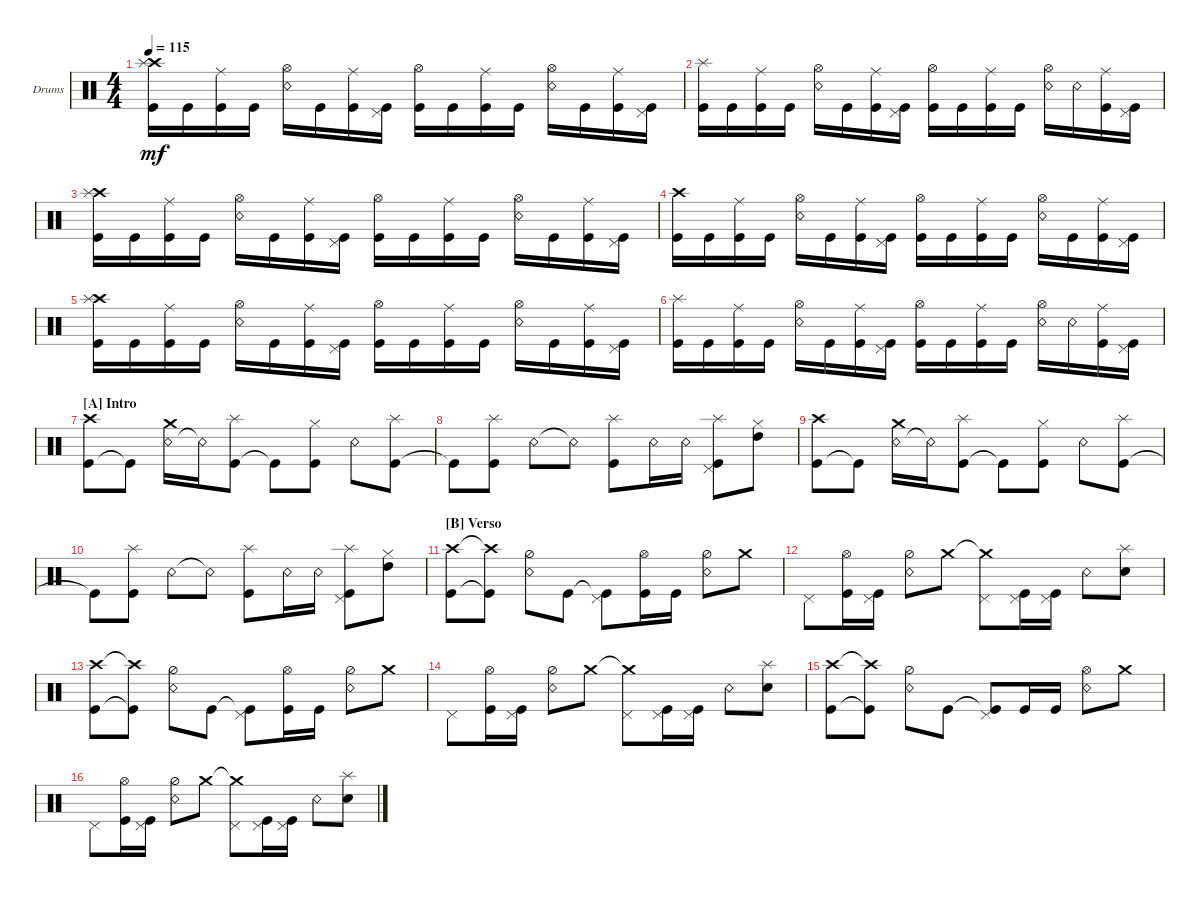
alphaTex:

\defaultSystemsLayout 4
\bracketExtendMode groupsimilarinstruments
\firstSystemTrackNameOrientation horizontal
\otherSystemsTrackNameOrientation horizontal
\track ("Drum" "Drums") {multiBarRest instrument percussion}
\staff {score}
\articulation defaults
\ts (4 4)
\tempo 115
\clef neutral
\ks c
("Kick (hit)" "Crash high (hit)" "Splash (hit)").16{dy mf} "Kick (hit)".16 ("Kick (hit)" "Ride (middle)").16 "Kick (hit)".16 ("Snare (rim shot)" "Hi-Hat (open)").16 "Kick (hit)".16 ("Kick (hit)" "Ride (middle)").16 ("Kick (hit)" "Pedal Hi-Hat (hit)").16 ("Kick (hit)" "Hi-Hat (open)").16 "Kick (hit)".16 ("Kick (hit)" "Ride (middle)").16 "Kick (hit)".16 ("Snare (rim shot)" "Hi-Hat (open)").16 "Kick (hit)".16 ("Kick (hit)" "Ride (middle)").16 ("Kick (hit)" "Pedal Hi-Hat (hit)").16 |
("Kick (hit)" "Splash (hit)").16 "Kick (hit)".16 ("Kick (hit)" "Ride (middle)").16 "Kick (hit)".16 ("Snare (rim shot)" "Hi-Hat (open)").16 "Kick (hit)".16 ("Kick (hit)" "Ride (middle)").16 ("Kick (hit)" "Pedal Hi-Hat (hit)").16 ("Kick (hit)" "Hi-Hat (open)").16 "Kick (hit)".16 ("Kick (hit)" "Ride (middle)").16 "Kick (hit)".16 ("Snare (rim shot)" "Hi-Hat (open)").16 "Snare (rim shot)".16 ("Kick (hit)" "Ride (middle)").16 ("Kick (hit)" "Pedal Hi-Hat (hit)").16 |
("Kick (hit)" "Crash high (hit)" "Splash (hit)").16 "Kick (hit)".16 ("Kick (hit)" "Ride (middle)").16 "Kick (hit)".16 ("Snare (rim shot)" "Hi-Hat (open)").16 "Kick (hit)".16 ("Kick (hit)" "Ride (middle)").16 ("Kick (hit)" "Pedal Hi-Hat (hit)").16 ("Kick (hit)" "Hi-Hat (open)").16 "Kick (hit)".16 ("Kick (hit)" "Ride (middle)").16 "Kick (hit)".16 ("Snare (rim shot)" "Hi-Hat (open)").16 "Kick (hit)".16 ("Kick (hit)" "Ride (middle)").16 ("Kick (hit)" "Pedal Hi-Hat (hit)").16 |
("Kick (hit)" "Crash high (hit)").16 "Kick (hit)".16 ("Kick (hit)" "Ride (middle)").16 "Kick (hit)".16 ("Snare (rim shot)" "Hi-Hat (open)").16 "Kick (hit)".16 ("Kick (hit)" "Ride (middle)").16 ("Kick (hit)" "Pedal Hi-Hat (hit)").16 ("Kick (hit)" "Hi-Hat (open)").16 "Kick (hit)".16 ("Kick (hit)" "Ride (middle)").16 "Kick (hit)".16 ("Snare (rim shot)" "Hi-Hat (open)").16 "Kick (hit)".16 ("Kick (hit)" "Ride (middle)").16 ("Kick (hit)" "Pedal Hi-Hat (hit)").16 |
("Kick (hit)" "Crash high (hit)" "Splash (hit)").16 "Kick (hit)".16 ("Kick (hit)" "Ride (middle)").16 "Kick (hit)".16 ("Snare (rim shot)" "Hi-Hat (open)").16 "Kick (hit)".16 ("Kick (hit)" "Ride (middle)").16 ("Kick (hit)" "Pedal Hi-Hat (hit)").16 ("Kick (hit)" "Hi-Hat (open)").16 "Kick (hit)".16 ("Kick (hit)" "Ride (middle)").16 "Kick (hit)".16 ("Snare (rim shot)" "Hi-Hat (open)").16 "Kick (hit)".16 ("Kick (hit)" "Ride (middle)").16 ("Kick (hit)" "Pedal Hi-Hat (hit)").16 |
("Kick (hit)" "Splash (hit)").16 "Kick (hit)".16 ("Kick (hit)" "Ride (middle)").16 "Kick (hit)".16 ("Snare (rim shot)" "Hi-Hat (open)").16 "Kick (hit)".16 ("Kick (hit)" "Ride (middle)").16 ("Kick (hit)" "Pedal Hi-Hat (hit)").16 ("Kick (hit)" "Hi-Hat (open)").16 "Kick (hit)".16 ("Kick (hit)" "Ride (middle)").16 "Kick (hit)".16 ("Snare (rim shot)" "Hi-Hat (open)").16 "Snare (rim shot)".16 ("Kick (hit)" "Ride (middle)").16 ("Kick (hit)" "Pedal Hi-Hat (hit)").16 |
\section ("A" "Intro")
("Kick (hit)" "Crash high (hit)").8 "Kick (hit)"{t}.8 ("Snare (rim shot)" "Crash medium (hit)").16 "Snare (rim shot)"{t}.16 ("Kick (hit)" "Splash (hit)").8 "Kick (hit)"{t}.8 ("Kick (hit)" "Hi-Hat (closed)").8 "Snare (rim shot)".8 ("Kick (hit)" "Splash (hit)").8 |
"Kick (hit)"{t}.8 ("Kick (hit)" "Splash (hit)").8 "Snare (rim shot)".8 "Snare (rim shot)"{t}.8 ("Kick (hit)" "Splash (hit)").8 "Snare (rim shot)".16 "Snare (rim shot)".16 ("Pedal Hi-Hat (hit)" "Kick (hit)" "Splash (hit)").8 ("High Tom (hit)" "Hi-Hat (closed)").8 |
("Kick (hit)" "Crash high (hit)").8 "Kick (hit)"{t}.8 ("Snare (rim shot)" "Crash medium (hit)").16 "Snare (rim shot)"{t}.16 ("Kick (hit)" "Splash (hit)").8 "Kick (hit)"{t}.8 ("Kick (hit)" "Hi-Hat (closed)").8 "Snare (rim shot)".8 ("Kick (hit)" "Splash (hit)").8 |
"Kick (hit)"{t}.8 ("Kick (hit)" "Splash (hit)").8 "Snare (rim shot)".8 "Snare (rim shot)"{t}.8 ("Kick (hit)" "Splash (hit)").8 "Snare (rim shot)".16 "Snare (rim shot)".16 ("Pedal Hi-Hat (hit)" "Kick (hit)" "Splash (hit)").8 ("High Tom (hit)" "Hi-Hat (closed)").8 |
\section ("B" "Verso")
("Kick (hit)" "Crash high (hit)").8 ("Kick (hit)"{t} "Crash high (hit)"{t}).8 ("Snare (rim shot)" "Hi-Hat (half)").8 "Kick (hit)".8 ("Kick (hit)"{t} "Pedal Hi-Hat (hit)").8 ("Kick (hit)" "Hi-Hat (open)").16 "Kick (hit)".16 ("Snare (rim shot)" "Hi-Hat (half)").8 "Crash medium (hit)".8 |
"Pedal Hi-Hat (hit)".8 ("Kick (hit)" "Hi-Hat (open)").16 ("Kick (hit)" "Pedal Hi-Hat (hit)").16 ("Snare (rim shot)" "Hi-Hat (half)").8 "Crash medium (hit)".8 ("Crash medium (hit)"{t} "Pedal Hi-Hat (hit)").8 ("Kick (hit)" "Pedal Hi-Hat (hit)").16 ("Kick (hit)" "Pedal Hi-Hat (hit)").16 "Snare (rim shot)".8 ("Snare (hit) 2" "Splash (hit)").8 |
("Kick (hit)" "Crash high (hit)").8 ("Kick (hit)"{t} "Crash high (hit)"{t}).8 ("Snare (rim shot)" "Hi-Hat (half)").8 "Kick (hit)".8 ("Kick (hit)"{t} "Pedal Hi-Hat (hit)").8 ("Kick (hit)" "Hi-Hat (open)").16 "Kick (hit)".16 ("Snare (rim shot)" "Hi-Hat (half)").8 "Crash medium (hit)".8 |
"Pedal Hi-Hat (hit)".8 ("Kick (hit)" "Hi-Hat (open)").16 ("Kick (hit)" "Pedal Hi-Hat (hit)").16 ("Snare (rim shot)" "Hi-Hat (half)").8 "Crash medium (hit)".8 ("Crash medium (hit)"{t} "Pedal Hi-Hat (hit)").8 ("Kick (hit)" "Pedal Hi-Hat (hit)").16 ("Kick (hit)" "Pedal Hi-Hat (hit)").16 "Snare (rim shot)".8 ("Snare (hit) 2" "Splash (hit)").8 |
("Kick (hit)" "Crash high (hit)").8 ("Kick (hit)"{t} "Crash high (hit)"{t}).8 ("Snare (rim shot)" "Hi-Hat (half)").8 "Kick (hit)".8 ("Kick (hit)"{t} "Pedal Hi-Hat (hit)").8 "Kick (hit)".16 "Kick (hit)".16 ("Snare (rim shot)" "Hi-Hat (open)").8 "Crash medium (hit)".8 |
"Pedal Hi-Hat (hit)".8 ("Kick (hit)" "Hi-Hat (open)").16 ("Kick (hit)" "Pedal Hi-Hat (hit)").16 ("Snare (rim shot)" "Hi-Hat (half)").8 "Crash medium (hit)".8 ("Crash medium (hit)"{t} "Pedal Hi-Hat (hit)").8 ("Kick (hit)" "Pedal Hi-Hat (hit)").16 ("Kick (hit)" "Pedal Hi-Hat (hit)").16 "Snare (rim shot)".8 ("Snare (hit) 2" "Splash (hit)").8
